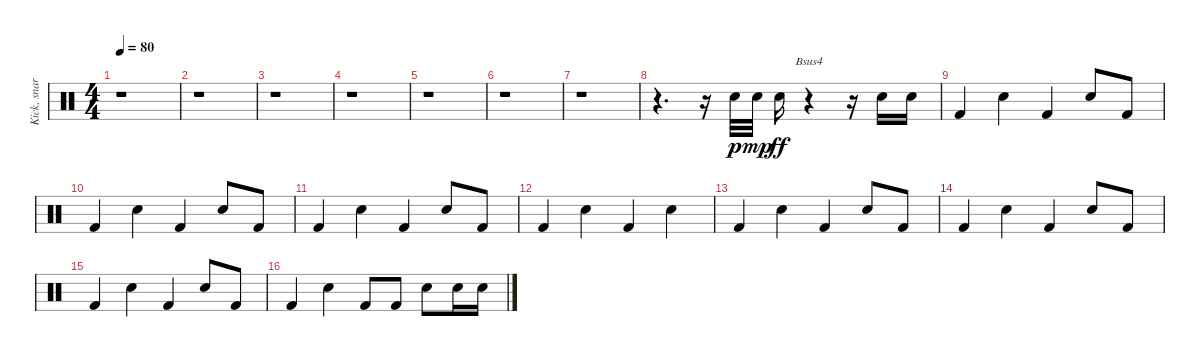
\track ("Kick, snare" "Kick, snar") {instrument percussion}
\staff {score}
\articulation defaults
\chord ("Bsus4")
\ts (4 4)
\tempo 80
\clef neutral
\ks c
r.1{dy p} |
r.1 |
r.1 |
r.1 |
r.1 |
r.1 |
r.1 |
r.4{d} r.16 "Snare (hit) 2".32 "Snare (hit) 2".32{dy mp} "Snare (hit) 2".16{dy ff} r.4{ch "Bsus4"} r.16 "Snare (hit) 2".16 "Snare (hit) 2".16 |
"Kick (hit) 2".4 "Snare (hit) 2".4 "Kick (hit) 2".4 "Snare (hit) 2".8 "Kick (hit) 2".8 |
"Kick (hit) 2".4 "Snare (hit) 2".4 "Kick (hit) 2".4 "Snare (hit) 2".8 "Kick (hit) 2".8 |
"Kick (hit) 2".4 "Snare (hit) 2".4 "Kick (hit) 2".4 "Snare (hit) 2".8 "Kick (hit) 2".8 |
"Kick (hit) 2".4 "Snare (hit) 2".4 "Kick (hit) 2".4 "Snare (hit) 2".4 |
"Kick (hit) 2".4 "Snare (hit) 2".4 "Kick (hit) 2".4 "Snare (hit) 2".8 "Kick (hit) 2".8 |
"Kick (hit) 2".4 "Snare (hit) 2".4 "Kick (hit) 2".4 "Snare (hit) 2".8 "Kick (hit) 2".8 |
"Kick (hit) 2".4 "Snare (hit) 2".4 "Kick (hit) 2".4 "Snare (hit) 2".8 "Kick (hit) 2".8 |
"Kick (hit) 2".4 "Snare (hit) 2".4 "Kick (hit) 2".8 "Kick (hit) 2".8 "Snare (hit) 2".8 "Snare (hit) 2".16 "Snare (hit) 2".16
